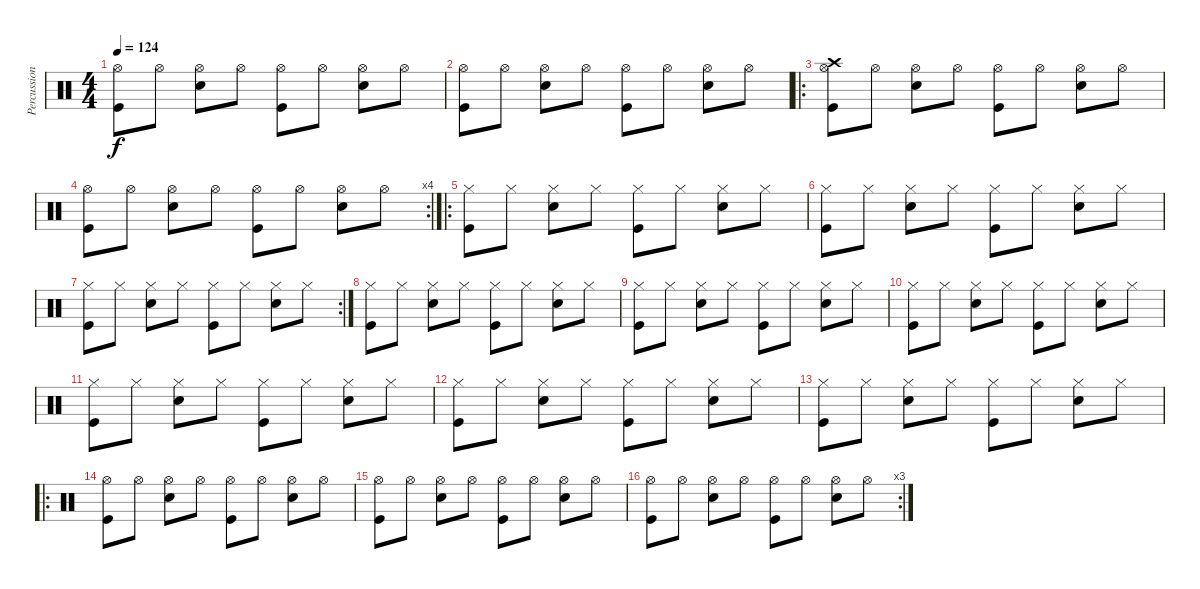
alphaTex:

\track ("Percussions" "Percussion") {instrument percussion}
\staff {score}
\articulation defaults
\ts (4 4)
\tempo 124
\clef neutral
\ks c
("Hi-Hat (open)" "Kick (hit)").8{dy f} "Hi-Hat (open)".8 ("Hi-Hat (open)" "Electric Snare (hit)").8 "Hi-Hat (open)".8 ("Hi-Hat (open)" "Kick (hit)").8 "Hi-Hat (open)".8 ("Hi-Hat (open)" "Electric Snare (hit)").8 "Hi-Hat (open)".8 |
("Hi-Hat (open)" "Kick (hit)").8 "Hi-Hat (open)".8 ("Hi-Hat (open)" "Electric Snare (hit)").8 "Hi-Hat (open)".8 ("Hi-Hat (open)" "Kick (hit)").8 "Hi-Hat (open)".8 ("Hi-Hat (open)" "Electric Snare (hit)").8 "Hi-Hat (open)".8 |
\ro
("Hi-Hat (open)" "Kick (hit)" "Crash high (hit)").8 "Hi-Hat (open)".8 ("Hi-Hat (open)" "Electric Snare (hit)").8 "Hi-Hat (open)".8 ("Hi-Hat (open)" "Kick (hit)").8 "Hi-Hat (open)".8 ("Hi-Hat (open)" "Electric Snare (hit)").8 "Hi-Hat (open)".8 |
\rc 4
("Hi-Hat (open)" "Kick (hit)").8 "Hi-Hat (open)".8 ("Hi-Hat (open)" "Electric Snare (hit)").8 "Hi-Hat (open)".8 ("Hi-Hat (open)" "Kick (hit)").8 "Hi-Hat (open)".8 ("Hi-Hat (open)" "Electric Snare (hit)").8 "Hi-Hat (open)".8 |
\ro
("Hi-Hat (closed)" "Kick (hit)").8 "Hi-Hat (closed)".8 ("Hi-Hat (closed)" "Electric Snare (hit)").8 "Hi-Hat (closed)".8 ("Hi-Hat (closed)" "Kick (hit)").8 "Hi-Hat (closed)".8 ("Hi-Hat (closed)" "Electric Snare (hit)").8 "Hi-Hat (closed)".8 |
("Hi-Hat (closed)" "Kick (hit)").8 "Hi-Hat (closed)".8 ("Hi-Hat (closed)" "Electric Snare (hit)").8 "Hi-Hat (closed)".8 ("Hi-Hat (closed)" "Kick (hit)").8 "Hi-Hat (closed)".8 ("Hi-Hat (closed)" "Electric Snare (hit)").8 "Hi-Hat (closed)".8 |
\rc 2
("Hi-Hat (closed)" "Kick (hit)").8 "Hi-Hat (closed)".8 ("Hi-Hat (closed)" "Electric Snare (hit)").8 "Hi-Hat (closed)".8 ("Hi-Hat (closed)" "Kick (hit)").8 "Hi-Hat (closed)".8 ("Hi-Hat (closed)" "Electric Snare (hit)").8 "Hi-Hat (closed)".8 |
("Hi-Hat (closed)" "Kick (hit)").8 "Hi-Hat (closed)".8 ("Hi-Hat (closed)" "Electric Snare (hit)").8 "Hi-Hat (closed)".8 ("Hi-Hat (closed)" "Kick (hit)").8 "Hi-Hat (closed)".8 ("Hi-Hat (closed)" "Electric Snare (hit)").8 "Hi-Hat (closed)".8 |
("Hi-Hat (closed)" "Kick (hit)").8 "Hi-Hat (closed)".8 ("Hi-Hat (closed)" "Electric Snare (hit)").8 "Hi-Hat (closed)".8 ("Hi-Hat (closed)" "Kick (hit)").8 "Hi-Hat (closed)".8 ("Hi-Hat (closed)" "Electric Snare (hit)").8 "Hi-Hat (closed)".8 |
("Hi-Hat (closed)" "Kick (hit)").8 "Hi-Hat (closed)".8 ("Hi-Hat (closed)" "Electric Snare (hit)").8 "Hi-Hat (closed)".8 ("Hi-Hat (closed)" "Kick (hit)").8 "Hi-Hat (closed)".8 ("Hi-Hat (closed)" "Electric Snare (hit)").8 "Hi-Hat (closed)".8 |
("Hi-Hat (closed)" "Kick (hit)").8 "Hi-Hat (closed)".8 ("Hi-Hat (closed)" "Electric Snare (hit)").8 "Hi-Hat (closed)".8 ("Hi-Hat (closed)" "Kick (hit)").8 "Hi-Hat (closed)".8 ("Hi-Hat (closed)" "Electric Snare (hit)").8 "Hi-Hat (closed)".8 |
("Hi-Hat (closed)" "Kick (hit)").8 "Hi-Hat (closed)".8 ("Hi-Hat (closed)" "Electric Snare (hit)").8 "Hi-Hat (closed)".8 ("Hi-Hat (closed)" "Kick (hit)").8 "Hi-Hat (closed)".8 ("Hi-Hat (closed)" "Electric Snare (hit)").8 "Hi-Hat (closed)".8 |
("Hi-Hat (closed)" "Kick (hit)").8 "Hi-Hat (closed)".8 ("Hi-Hat (closed)" "Electric Snare (hit)").8 "Hi-Hat (closed)".8 ("Hi-Hat (closed)" "Kick (hit)").8 "Hi-Hat (closed)".8 ("Hi-Hat (closed)" "Electric Snare (hit)").8 "Hi-Hat (closed)".8 |
\ro
("Hi-Hat (open)" "Kick (hit)").8 "Hi-Hat (open)".8 ("Hi-Hat (open)" "Electric Snare (hit)").8 "Hi-Hat (open)".8 ("Hi-Hat (open)" "Kick (hit)").8 "Hi-Hat (open)".8 ("Hi-Hat (open)" "Electric Snare (hit)").8 "Hi-Hat (open)".8 |
("Hi-Hat (open)" "Kick (hit)").8 "Hi-Hat (open)".8 ("Hi-Hat (open)" "Electric Snare (hit)").8 "Hi-Hat (open)".8 ("Hi-Hat (open)" "Kick (hit)").8 "Hi-Hat (open)".8 ("Hi-Hat (open)" "Electric Snare (hit)").8 "Hi-Hat (open)".8 |
\rc 3
("Hi-Hat (open)" "Kick (hit)").8 "Hi-Hat (open)".8 ("Hi-Hat (open)" "Electric Snare (hit)").8 "Hi-Hat (open)".8 ("Hi-Hat (open)" "Kick (hit)").8 "Hi-Hat (open)".8 ("Hi-Hat (open)" "Electric Snare (hit)").8 "Hi-Hat (open)".8
